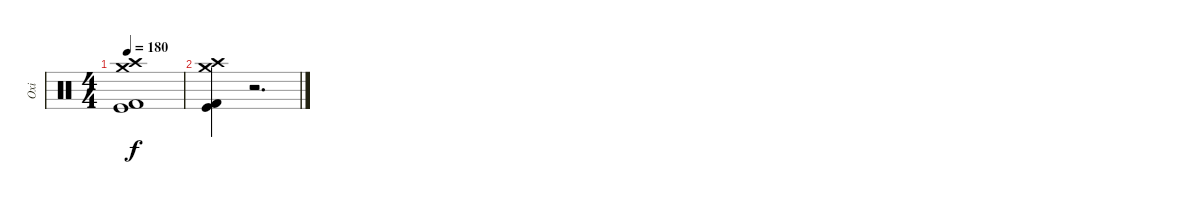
\track ("Oxi" "Oxi") {instrument percussion}
\staff {score}
\articulation defaults
\ts (4 4)
\tempo 180
\clef neutral
\ks c
("Crash medium (hit)" "Crash high (hit)" "Kick (hit) 2" "Kick (hit)").1{dy f} |
("Crash medium (hit)" "Crash high (hit)" "Kick (hit) 2" "Kick (hit)").4 r.2{d}
